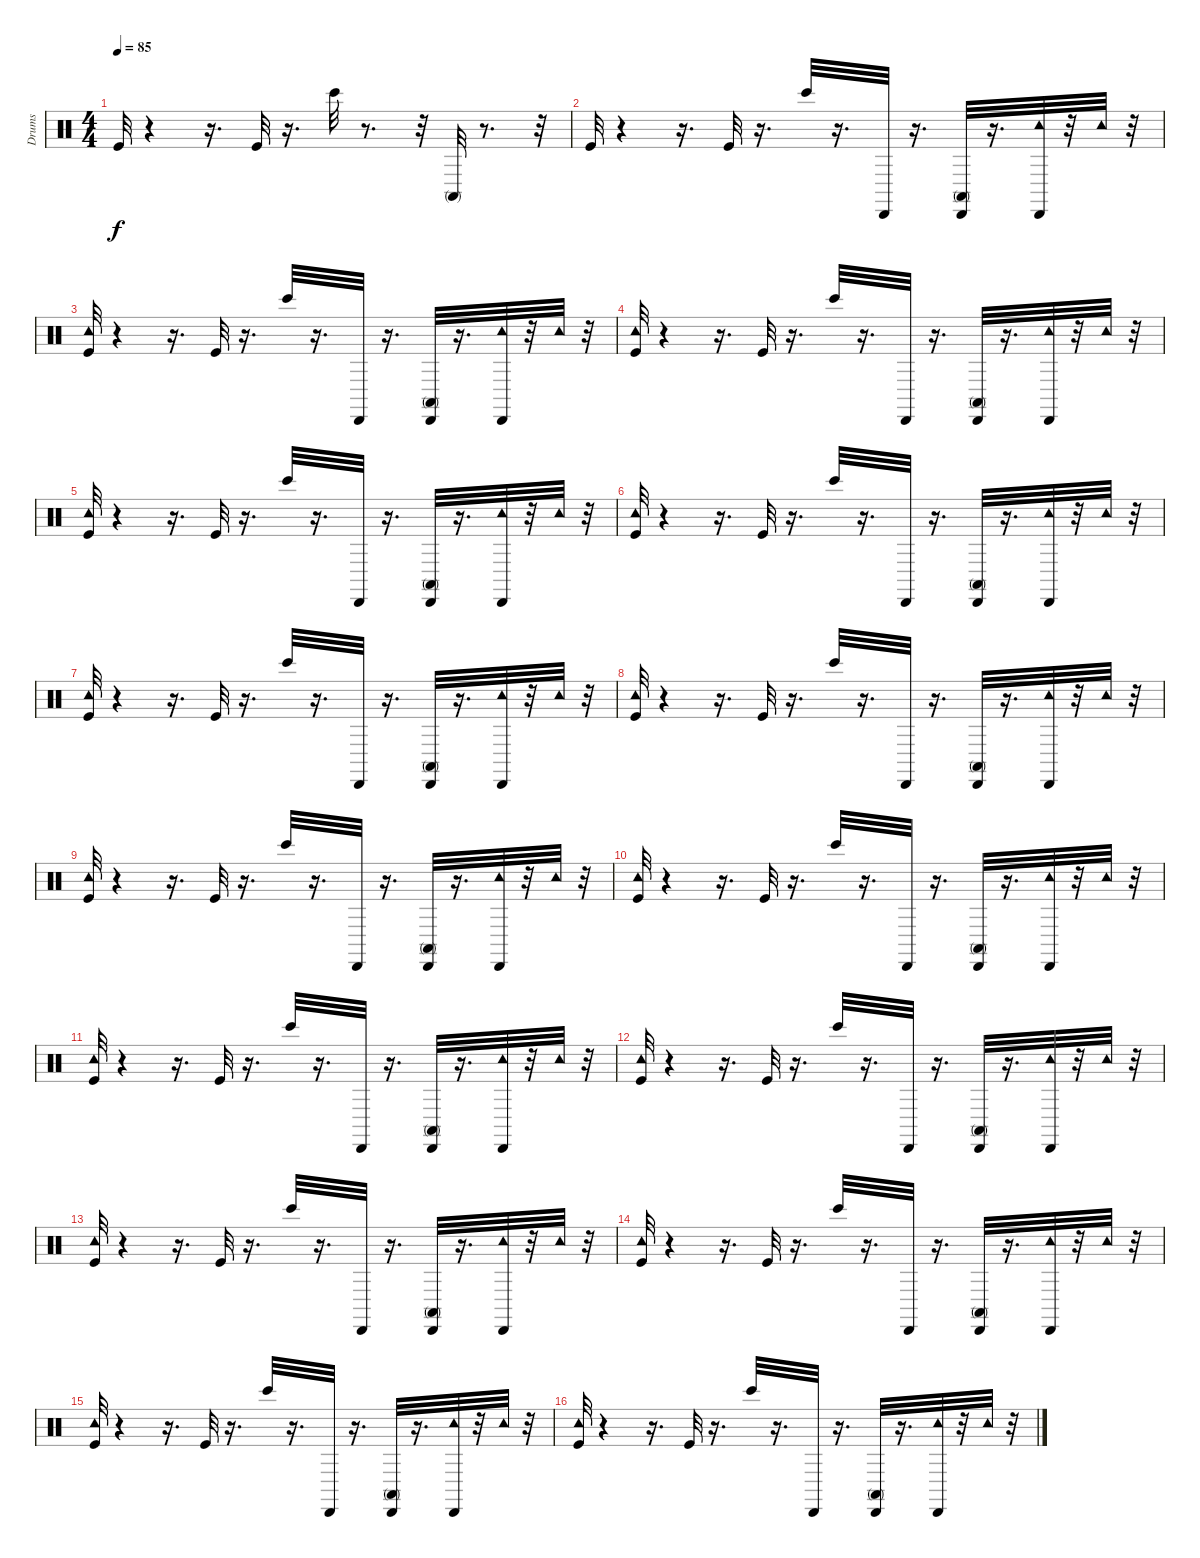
\track ("Drums" "Drums") {instrument percussion}
\staff {score}
\articulation defaults
\ts (4 4)
\tempo 85
\clef neutral
\ks c "Kick (hit)".32{dy f}
r.4 r.16{d} "Kick (hit)".32 r.16{d} "Bongo High (hit)".32 r.8{d} r.32 "Conga high (mute)".32 r.8{d} r.32 |
"Kick (hit)".32 r.4 r.16{d} "Kick (hit)".32 r.16{d} "Bongo High (hit)".32 r.16{d} "Cabasa (hit)".32 r.16{d} ("Cabasa (hit)" "Conga high (mute)").32 r.16{d} ("Cabasa (hit)" "Tambourine (hit)").32 r.32 "Tambourine (hit)".32 r.32 |
("Kick (hit)" "Tambourine (hit)").32 r.4 r.16{d} "Kick (hit)".32 r.16{d} "Bongo High (hit)".32 r.16{d} "Cabasa (hit)".32 r.16{d} ("Cabasa (hit)" "Conga high (mute)").32 r.16{d} ("Cabasa (hit)" "Tambourine (hit)").32 r.32 "Tambourine (hit)".32 r.32 |
("Kick (hit)" "Tambourine (hit)").32 r.4 r.16{d} "Kick (hit)".32 r.16{d} "Bongo High (hit)".32 r.16{d} "Cabasa (hit)".32 r.16{d} ("Cabasa (hit)" "Conga high (mute)").32 r.16{d} ("Cabasa (hit)" "Tambourine (hit)").32 r.32 "Tambourine (hit)".32 r.32 |
("Kick (hit)" "Tambourine (hit)").32 r.4 r.16{d} "Kick (hit)".32 r.16{d} "Bongo High (hit)".32 r.16{d} "Cabasa (hit)".32 r.16{d} ("Cabasa (hit)" "Conga high (mute)").32 r.16{d} ("Cabasa (hit)" "Tambourine (hit)").32 r.32 "Tambourine (hit)".32 r.32 |
("Kick (hit)" "Tambourine (hit)").32 r.4 r.16{d} "Kick (hit)".32 r.16{d} "Bongo High (hit)".32 r.16{d} "Cabasa (hit)".32 r.16{d} ("Cabasa (hit)" "Conga high (mute)").32 r.16{d} ("Cabasa (hit)" "Tambourine (hit)").32 r.32 "Tambourine (hit)".32 r.32 |
("Kick (hit)" "Tambourine (hit)").32 r.4 r.16{d} "Kick (hit)".32 r.16{d} "Bongo High (hit)".32 r.16{d} "Cabasa (hit)".32 r.16{d} ("Cabasa (hit)" "Conga high (mute)").32 r.16{d} ("Cabasa (hit)" "Tambourine (hit)").32 r.32 "Tambourine (hit)".32 r.32 |
("Kick (hit)" "Tambourine (hit)").32 r.4 r.16{d} "Kick (hit)".32 r.16{d} "Bongo High (hit)".32 r.16{d} "Cabasa (hit)".32 r.16{d} ("Cabasa (hit)" "Conga high (mute)").32 r.16{d} ("Cabasa (hit)" "Tambourine (hit)").32 r.32 "Tambourine (hit)".32 r.32 |
("Kick (hit)" "Tambourine (hit)").32 r.4 r.16{d} "Kick (hit)".32 r.16{d} "Bongo High (hit)".32 r.16{d} "Cabasa (hit)".32 r.16{d} ("Cabasa (hit)" "Conga high (mute)").32 r.16{d} ("Cabasa (hit)" "Tambourine (hit)").32 r.32 "Tambourine (hit)".32 r.32 |
("Kick (hit)" "Tambourine (hit)").32 r.4 r.16{d} "Kick (hit)".32 r.16{d} "Bongo High (hit)".32 r.16{d} "Cabasa (hit)".32 r.16{d} ("Cabasa (hit)" "Conga high (mute)").32 r.16{d} ("Cabasa (hit)" "Tambourine (hit)").32 r.32 "Tambourine (hit)".32 r.32 |
("Kick (hit)" "Tambourine (hit)").32 r.4 r.16{d} "Kick (hit)".32 r.16{d} "Bongo High (hit)".32 r.16{d} "Cabasa (hit)".32 r.16{d} ("Cabasa (hit)" "Conga high (mute)").32 r.16{d} ("Cabasa (hit)" "Tambourine (hit)").32 r.32 "Tambourine (hit)".32 r.32 |
("Kick (hit)" "Tambourine (hit)").32 r.4 r.16{d} "Kick (hit)".32 r.16{d} "Bongo High (hit)".32 r.16{d} "Cabasa (hit)".32 r.16{d} ("Cabasa (hit)" "Conga high (mute)").32 r.16{d} ("Cabasa (hit)" "Tambourine (hit)").32 r.32 "Tambourine (hit)".32 r.32 |
("Kick (hit)" "Tambourine (hit)").32 r.4 r.16{d} "Kick (hit)".32 r.16{d} "Bongo High (hit)".32 r.16{d} "Cabasa (hit)".32 r.16{d} ("Cabasa (hit)" "Conga high (mute)").32 r.16{d} ("Cabasa (hit)" "Tambourine (hit)").32 r.32 "Tambourine (hit)".32 r.32 |
("Kick (hit)" "Tambourine (hit)").32 r.4 r.16{d} "Kick (hit)".32 r.16{d} "Bongo High (hit)".32 r.16{d} "Cabasa (hit)".32 r.16{d} ("Cabasa (hit)" "Conga high (mute)").32 r.16{d} ("Cabasa (hit)" "Tambourine (hit)").32 r.32 "Tambourine (hit)".32 r.32 |
("Kick (hit)" "Tambourine (hit)").32 r.4 r.16{d} "Kick (hit)".32 r.16{d} "Bongo High (hit)".32 r.16{d} "Cabasa (hit)".32 r.16{d} ("Cabasa (hit)" "Conga high (mute)").32 r.16{d} ("Cabasa (hit)" "Tambourine (hit)").32 r.32 "Tambourine (hit)".32 r.32 |
("Kick (hit)" "Tambourine (hit)").32 r.4 r.16{d} "Kick (hit)".32 r.16{d} "Bongo High (hit)".32 r.16{d} "Cabasa (hit)".32 r.16{d} ("Cabasa (hit)" "Conga high (mute)").32 r.16{d} ("Cabasa (hit)" "Tambourine (hit)").32 r.32 "Tambourine (hit)".32 r.32
